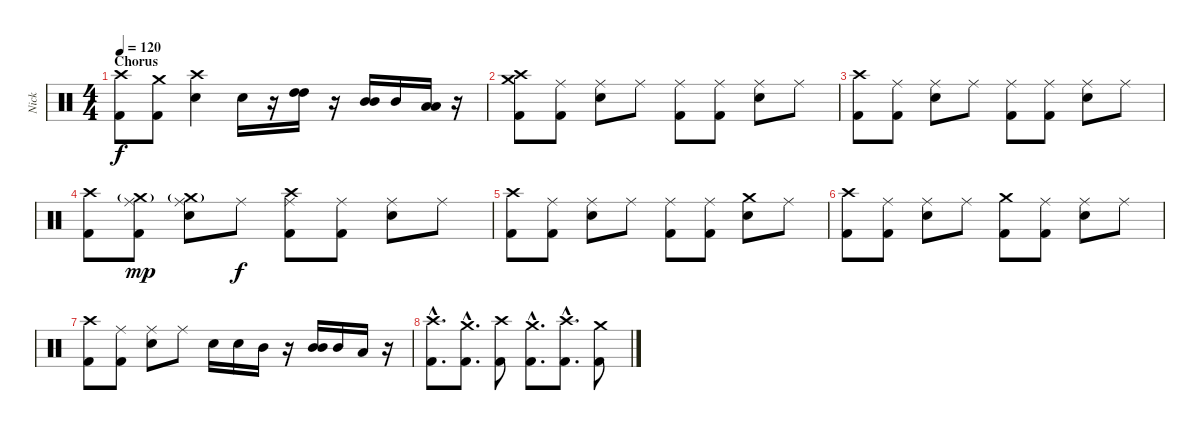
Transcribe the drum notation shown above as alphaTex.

\track ("Nick" "Nick") {instrument percussion}
\staff {score}
\articulation defaults
\ts (4 4)
\section ("" "Chorus")
\tempo 120
\clef neutral
\ks c
("Crash high (hit)" "Kick (hit) 2").8{dy f} ("Crash medium (hit)" "Kick (hit) 2").8 ("Crash high (hit)" "Electric Snare (hit)").4 "Electric Snare (hit)".16 r.16 ("High Tom (hit)" "High Tom (hit)").16 r.16 ("Mid Tom (hit)" "Mid Tom (hit)").16 "Mid Tom (hit)".16 ("Low Tom (hit)" "Low Tom (hit)").16 r.16 |
("Crash high (hit)" "Crash medium (hit)" "Kick (hit) 2").8 ("Ride (middle)" "Kick (hit) 2").8 ("Ride (middle)" "Electric Snare (hit)").8 "Ride (middle)".8 ("Ride (middle)" "Kick (hit) 2").8 ("Ride (middle)" "Kick (hit) 2").8 ("Ride (middle)" "Electric Snare (hit)").8 "Ride (middle)".8 |
("Crash high (hit)" "Kick (hit) 2").8 ("Ride (middle)" "Kick (hit) 2").8 ("Ride (middle)" "Electric Snare (hit)").8 "Ride (middle)".8 ("Ride (middle)" "Kick (hit) 2").8 ("Ride (middle)" "Kick (hit) 2").8 ("Ride (middle)" "Electric Snare (hit)").8 "Ride (middle)".8 |
("Crash high (hit)" "Kick (hit) 2").8 ("Crash medium (hit)"{g} "Ride (middle)" "Kick (hit) 2").8{dy mp} ("Crash medium (hit)"{g} "Ride (middle)" "Electric Snare (hit)").8 "Ride (middle)".8{dy f} ("Crash high (hit)" "Ride (middle)" "Kick (hit) 2").8 ("Ride (middle)" "Kick (hit) 2").8 ("Ride (middle)" "Electric Snare (hit)").8 "Ride (middle)".8 |
("Crash high (hit)" "Kick (hit) 2").8 ("Ride (middle)" "Kick (hit) 2").8 ("Ride (middle)" "Electric Snare (hit)").8 "Ride (middle)".8 ("Ride (middle)" "Kick (hit) 2").8 ("Ride (middle)" "Kick (hit) 2").8 ("Crash medium (hit)" "Electric Snare (hit)").8 "Ride (middle)".8 |
("Crash high (hit)" "Kick (hit) 2").8 ("Ride (middle)" "Kick (hit) 2").8 ("Ride (middle)" "Electric Snare (hit)").8 "Ride (middle)".8 ("Crash medium (hit)" "Kick (hit) 2").8 ("Ride (middle)" "Kick (hit) 2").8 ("Ride (middle)" "Electric Snare (hit)").8 "Ride (middle)".8 |
("Crash high (hit)" "Kick (hit) 2").8 ("Ride (middle)" "Kick (hit) 2").8 ("Ride (middle)" "Electric Snare (hit)").8 "Ride (middle)".8 "Electric Snare (hit)".16 "Electric Snare (hit)".16 "Mid Tom (hit)".16 r.16 ("Mid Tom (hit)" "Mid Tom (hit)").16 "Mid Tom (hit)".16 "Low Tom (hit)".16 r.16 |
("Crash high (hit)"{hac} "Kick (hit) 2"{hac}).8{d} ("Crash medium (hit)"{hac} "Kick (hit) 2"{hac}).8{d} ("Crash high (hit)" "Kick (hit) 2").8 ("Crash medium (hit)"{hac} "Kick (hit) 2"{hac}).8{d} ("Crash high (hit)"{hac} "Kick (hit) 2"{hac}).8{d} ("Crash medium (hit)" "Kick (hit) 2").8
